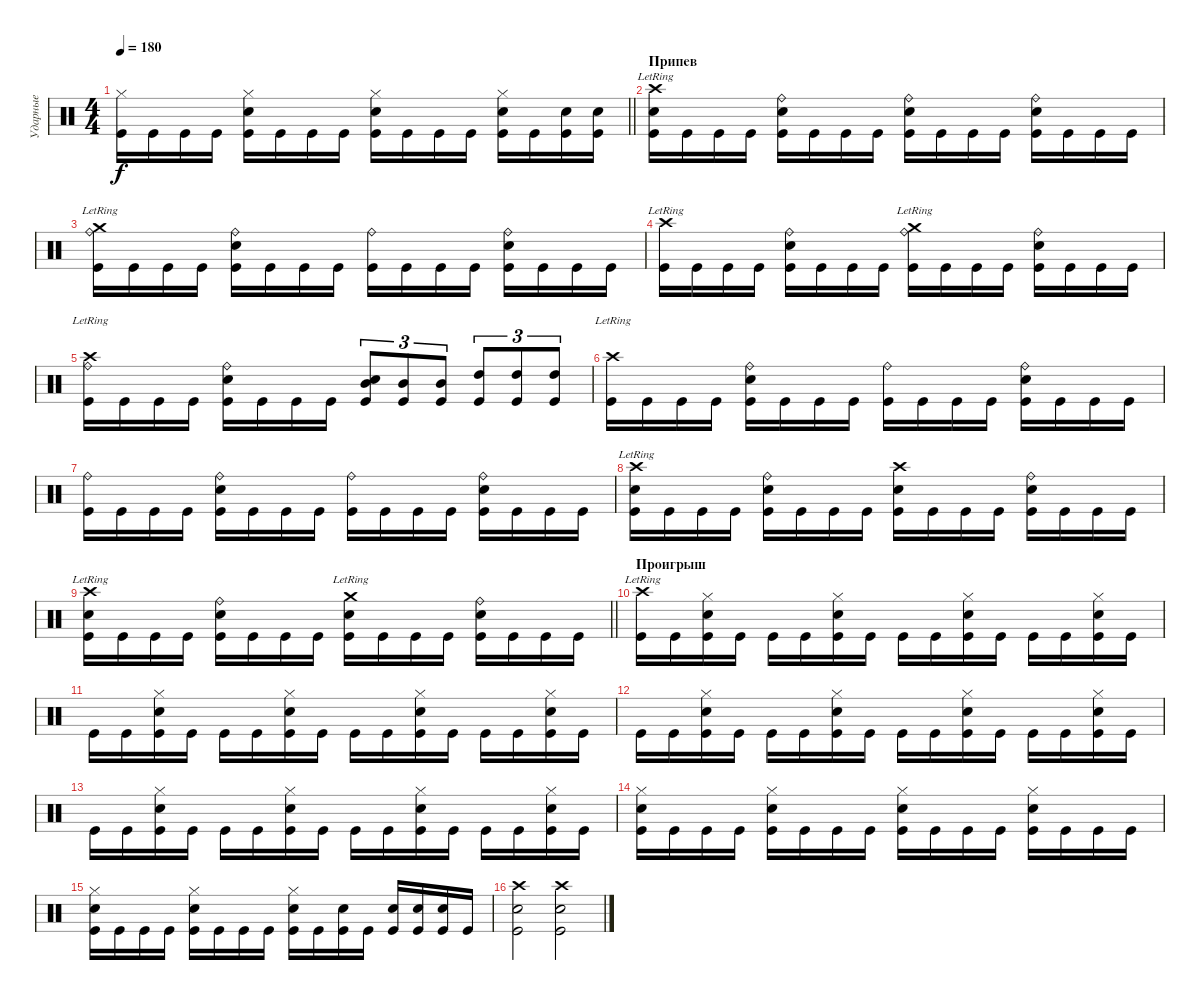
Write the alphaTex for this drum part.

\track ("Ударные" "Ударные") {instrument percussion}
\staff {score}
\articulation defaults
\ts (4 4)
\tempo 180
\clef neutral
\barLineRight lightlight
\ks c
("Hi-Hat (closed)" "Kick (hit)").16{dy f} "Kick (hit)".16 "Kick (hit)".16 "Kick (hit)".16 ("Hi-Hat (closed)" "Electric Snare (hit)" "Kick (hit)").16 "Kick (hit)".16 "Kick (hit)".16 "Kick (hit)".16 ("Hi-Hat (closed)" "Electric Snare (hit)" "Kick (hit)").16 "Kick (hit)".16 "Kick (hit)".16 "Kick (hit)".16 ("Hi-Hat (closed)" "Electric Snare (hit)" "Kick (hit)").16 "Kick (hit)".16 ("Electric Snare (hit)" "Kick (hit)").16 ("Electric Snare (hit)" "Kick (hit)").16 |
\section ("" "Припев")
("Crash high (hit)"{lr} "Electric Snare (hit)" "Kick (hit)").16 "Kick (hit)".16 "Kick (hit)".16 "Kick (hit)".16 ("Ride (bell)" "Electric Snare (hit)" "Kick (hit)").16 "Kick (hit)".16 "Kick (hit)".16 "Kick (hit)".16 ("Ride (bell)" "Electric Snare (hit)" "Kick (hit)").16 "Kick (hit)".16 "Kick (hit)".16 "Kick (hit)".16 ("Ride (bell)" "Electric Snare (hit)" "Kick (hit)").16 "Kick (hit)".16 "Kick (hit)".16 "Kick (hit)".16 |
("Crash medium (hit)"{lr} "Ride (bell)" "Kick (hit)").16 "Kick (hit)".16 "Kick (hit)".16 "Kick (hit)".16 ("Ride (bell)" "Electric Snare (hit)" "Kick (hit)").16 "Kick (hit)".16 "Kick (hit)".16 "Kick (hit)".16 ("Ride (bell)" "Kick (hit)").16 "Kick (hit)".16 "Kick (hit)".16 "Kick (hit)".16 ("Ride (bell)" "Electric Snare (hit)" "Kick (hit)").16 "Kick (hit)".16 "Kick (hit)".16 "Kick (hit)".16 |
("Crash high (hit)"{lr} "Kick (hit)").16 "Kick (hit)".16 "Kick (hit)".16 "Kick (hit)".16 ("Ride (bell)" "Electric Snare (hit)" "Kick (hit)").16 "Kick (hit)".16 "Kick (hit)".16 "Kick (hit)".16 ("Crash medium (hit)"{lr} "Ride (bell)" "Kick (hit)").16 "Kick (hit)".16 "Kick (hit)".16 "Kick (hit)".16 ("Ride (bell)" "Electric Snare (hit)" "Kick (hit)").16 "Kick (hit)".16 "Kick (hit)".16 "Kick (hit)".16 |
("Crash high (hit)"{lr} "Ride (bell)" "Kick (hit)").16 "Kick (hit)".16 "Kick (hit)".16 "Kick (hit)".16 ("Ride (bell)" "Electric Snare (hit)" "Kick (hit)").16 "Kick (hit)".16 "Kick (hit)".16 "Kick (hit)".16 ("Mid Tom (hit)" "Electric Snare (hit)" "Kick (hit)").8{tu (3 2)} ("Mid Tom (hit)" "Kick (hit)").8{tu (3 2)} ("Mid Tom (hit)" "Kick (hit)").8{tu (3 2)} ("High Tom (hit)" "Kick (hit)").8{tu (3 2)} ("High Tom (hit)" "Kick (hit)").8{tu (3 2)} ("High Tom (hit)" "Kick (hit)").8{tu (3 2)} |
("Crash high (hit)"{lr} "Kick (hit)").16 "Kick (hit)".16 "Kick (hit)".16 "Kick (hit)".16 ("Ride (bell)" "Electric Snare (hit)" "Kick (hit)").16 "Kick (hit)".16 "Kick (hit)".16 "Kick (hit)".16 ("Ride (bell)" "Kick (hit)").16 "Kick (hit)".16 "Kick (hit)".16 "Kick (hit)".16 ("Ride (bell)" "Electric Snare (hit)" "Kick (hit)").16 "Kick (hit)".16 "Kick (hit)".16 "Kick (hit)".16 |
("Ride (bell)" "Kick (hit)").16 "Kick (hit)".16 "Kick (hit)".16 "Kick (hit)".16 ("Ride (bell)" "Electric Snare (hit)" "Kick (hit)").16 "Kick (hit)".16 "Kick (hit)".16 "Kick (hit)".16 ("Ride (bell)" "Kick (hit)").16 "Kick (hit)".16 "Kick (hit)".16 "Kick (hit)".16 ("Ride (bell)" "Electric Snare (hit)" "Kick (hit)").16 "Kick (hit)".16 "Kick (hit)".16 "Kick (hit)".16 |
("Crash high (hit)"{lr} "Electric Snare (hit)" "Kick (hit)").16 "Kick (hit)".16 "Kick (hit)".16 "Kick (hit)".16 ("Ride (bell)" "Electric Snare (hit)" "Kick (hit)").16 "Kick (hit)".16 "Kick (hit)".16 "Kick (hit)".16 ("Crash high (hit)" "Electric Snare (hit)" "Kick (hit)").16 "Kick (hit)".16 "Kick (hit)".16 "Kick (hit)".16 ("Ride (bell)" "Electric Snare (hit)" "Kick (hit)").16 "Kick (hit)".16 "Kick (hit)".16 "Kick (hit)".16 |
\barLineRight lightlight
("Crash high (hit)"{lr} "Electric Snare (hit)" "Kick (hit)").16 "Kick (hit)".16 "Kick (hit)".16 "Kick (hit)".16 ("Ride (bell)" "Electric Snare (hit)" "Kick (hit)").16 "Kick (hit)".16 "Kick (hit)".16 "Kick (hit)".16 ("Crash medium (hit)"{lr} "Electric Snare (hit)" "Kick (hit)").16 "Kick (hit)".16 "Kick (hit)".16 "Kick (hit)".16 ("Ride (bell)" "Electric Snare (hit)" "Kick (hit)").16 "Kick (hit)".16 "Kick (hit)".16 "Kick (hit)".16 |
\section ("" "Проигрыш")
("Crash high (hit)"{lr} "Kick (hit)").16 "Kick (hit)".16 ("Hi-Hat (closed)" "Electric Snare (hit)" "Kick (hit)").16 "Kick (hit)".16 "Kick (hit)".16 "Kick (hit)".16 ("Hi-Hat (closed)" "Electric Snare (hit)" "Kick (hit)").16 "Kick (hit)".16 "Kick (hit)".16 "Kick (hit)".16 ("Hi-Hat (closed)" "Electric Snare (hit)" "Kick (hit)").16 "Kick (hit)".16 "Kick (hit)".16 "Kick (hit)".16 ("Hi-Hat (closed)" "Electric Snare (hit)" "Kick (hit)").16 "Kick (hit)".16 |
"Kick (hit)".16 "Kick (hit)".16 ("Hi-Hat (closed)" "Electric Snare (hit)" "Kick (hit)").16 "Kick (hit)".16 "Kick (hit)".16 "Kick (hit)".16 ("Hi-Hat (closed)" "Electric Snare (hit)" "Kick (hit)").16 "Kick (hit)".16 "Kick (hit)".16 "Kick (hit)".16 ("Hi-Hat (closed)" "Electric Snare (hit)" "Kick (hit)").16 "Kick (hit)".16 "Kick (hit)".16 "Kick (hit)".16 ("Hi-Hat (closed)" "Electric Snare (hit)" "Kick (hit)").16 "Kick (hit)".16 |
"Kick (hit)".16 "Kick (hit)".16 ("Hi-Hat (closed)" "Electric Snare (hit)" "Kick (hit)").16 "Kick (hit)".16 "Kick (hit)".16 "Kick (hit)".16 ("Hi-Hat (closed)" "Electric Snare (hit)" "Kick (hit)").16 "Kick (hit)".16 "Kick (hit)".16 "Kick (hit)".16 ("Hi-Hat (closed)" "Electric Snare (hit)" "Kick (hit)").16 "Kick (hit)".16 "Kick (hit)".16 "Kick (hit)".16 ("Hi-Hat (closed)" "Electric Snare (hit)" "Kick (hit)").16 "Kick (hit)".16 |
"Kick (hit)".16 "Kick (hit)".16 ("Hi-Hat (closed)" "Electric Snare (hit)" "Kick (hit)").16 "Kick (hit)".16 "Kick (hit)".16 "Kick (hit)".16 ("Hi-Hat (closed)" "Electric Snare (hit)" "Kick (hit)").16 "Kick (hit)".16 "Kick (hit)".16 "Kick (hit)".16 ("Hi-Hat (closed)" "Electric Snare (hit)" "Kick (hit)").16 "Kick (hit)".16 "Kick (hit)".16 "Kick (hit)".16 ("Hi-Hat (closed)" "Electric Snare (hit)" "Kick (hit)").16 "Kick (hit)".16 |
("Hi-Hat (closed)" "Electric Snare (hit)" "Kick (hit)").16 "Kick (hit)".16 "Kick (hit)".16 "Kick (hit)".16 ("Hi-Hat (closed)" "Electric Snare (hit)" "Kick (hit)").16 "Kick (hit)".16 "Kick (hit)".16 "Kick (hit)".16 ("Hi-Hat (closed)" "Electric Snare (hit)" "Kick (hit)").16 "Kick (hit)".16 "Kick (hit)".16 "Kick (hit)".16 ("Hi-Hat (closed)" "Electric Snare (hit)" "Kick (hit)").16 "Kick (hit)".16 "Kick (hit)".16 "Kick (hit)".16 |
("Hi-Hat (closed)" "Electric Snare (hit)" "Kick (hit)").16 "Kick (hit)".16 "Kick (hit)".16 "Kick (hit)".16 ("Hi-Hat (closed)" "Electric Snare (hit)" "Kick (hit)").16 "Kick (hit)".16 "Kick (hit)".16 "Kick (hit)".16 ("Hi-Hat (closed)" "Electric Snare (hit)" "Kick (hit)").16 "Kick (hit)".16 ("Electric Snare (hit)" "Kick (hit)").16 "Kick (hit)".16 ("Electric Snare (hit)" "Kick (hit)").16 ("Electric Snare (hit)" "Kick (hit)").16 ("Electric Snare (hit)" "Kick (hit)").16 "Kick (hit)".16 |
("Crash high (hit)" "Electric Snare (hit)" "Kick (hit)").2 ("Crash high (hit)" "Electric Snare (hit)" "Kick (hit)").2
